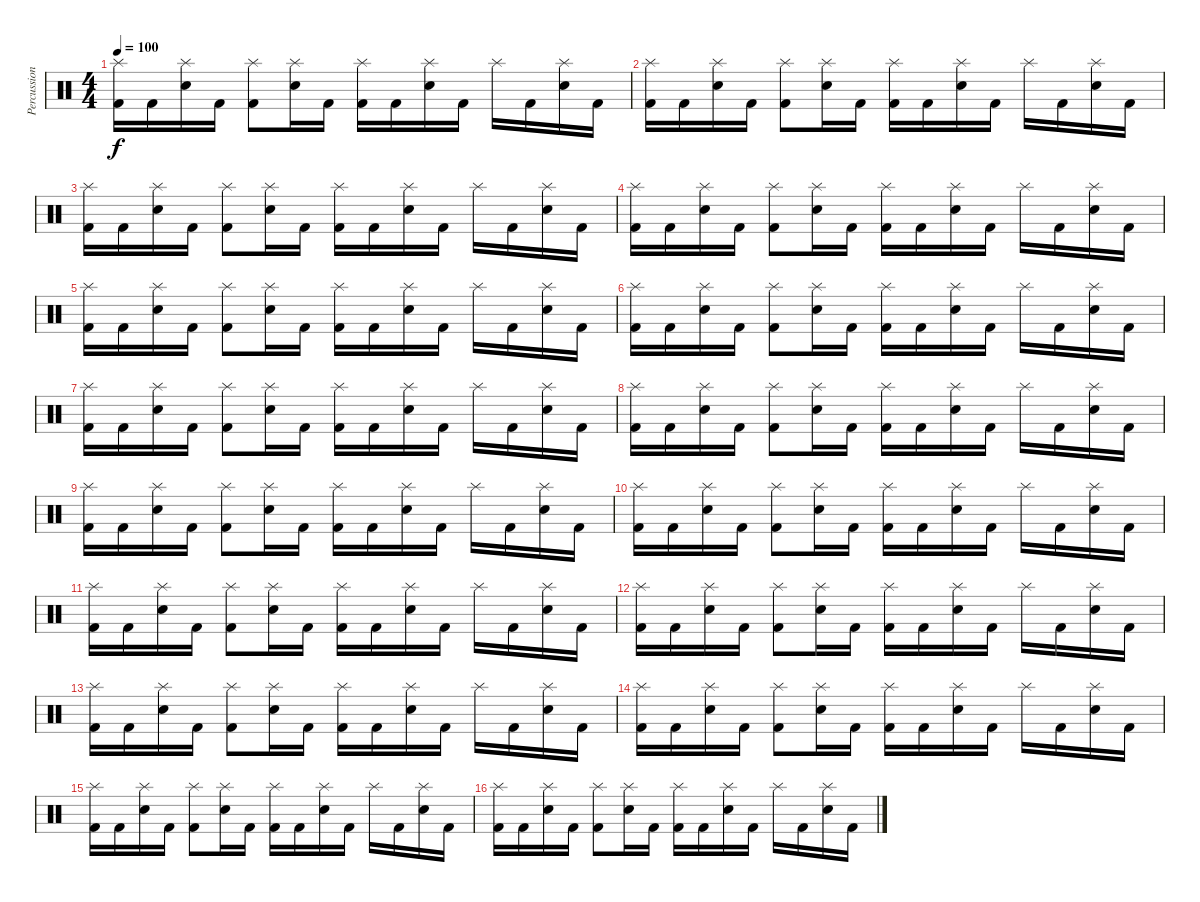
\track ("Percussion" "Percussion") {instrument percussion}
\staff {score}
\articulation defaults
\ts (4 4)
\tempo 100
\clef neutral
\ks c
("Splash (hit)" "Kick (hit) 2").16{dy f} "Kick (hit) 2".16 ("Splash (hit)" "Electric Snare (hit)").16 "Kick (hit) 2".16 ("Splash (hit)" "Kick (hit) 2").8 ("Splash (hit)" "Electric Snare (hit)").16 "Kick (hit) 2".16 ("Splash (hit)" "Kick (hit) 2").16 "Kick (hit) 2".16 ("Splash (hit)" "Electric Snare (hit)").16 "Kick (hit) 2".16 "Splash (hit)".16 "Kick (hit) 2".16 ("Splash (hit)" "Electric Snare (hit)").16 "Kick (hit) 2".16 |
("Splash (hit)" "Kick (hit) 2").16 "Kick (hit) 2".16 ("Splash (hit)" "Electric Snare (hit)").16 "Kick (hit) 2".16 ("Splash (hit)" "Kick (hit) 2").8 ("Splash (hit)" "Electric Snare (hit)").16 "Kick (hit) 2".16 ("Splash (hit)" "Kick (hit) 2").16 "Kick (hit) 2".16 ("Splash (hit)" "Electric Snare (hit)").16 "Kick (hit) 2".16 "Splash (hit)".16 "Kick (hit) 2".16 ("Splash (hit)" "Electric Snare (hit)").16 "Kick (hit) 2".16 |
("Splash (hit)" "Kick (hit) 2").16 "Kick (hit) 2".16 ("Splash (hit)" "Electric Snare (hit)").16 "Kick (hit) 2".16 ("Splash (hit)" "Kick (hit) 2").8 ("Splash (hit)" "Electric Snare (hit)").16 "Kick (hit) 2".16 ("Splash (hit)" "Kick (hit) 2").16 "Kick (hit) 2".16 ("Splash (hit)" "Electric Snare (hit)").16 "Kick (hit) 2".16 "Splash (hit)".16 "Kick (hit) 2".16 ("Splash (hit)" "Electric Snare (hit)").16 "Kick (hit) 2".16 |
("Splash (hit)" "Kick (hit) 2").16 "Kick (hit) 2".16 ("Splash (hit)" "Electric Snare (hit)").16 "Kick (hit) 2".16 ("Splash (hit)" "Kick (hit) 2").8 ("Splash (hit)" "Electric Snare (hit)").16 "Kick (hit) 2".16 ("Splash (hit)" "Kick (hit) 2").16 "Kick (hit) 2".16 ("Splash (hit)" "Electric Snare (hit)").16 "Kick (hit) 2".16 "Splash (hit)".16 "Kick (hit) 2".16 ("Splash (hit)" "Electric Snare (hit)").16 "Kick (hit) 2".16 |
("Splash (hit)" "Kick (hit) 2").16 "Kick (hit) 2".16 ("Splash (hit)" "Electric Snare (hit)").16 "Kick (hit) 2".16 ("Splash (hit)" "Kick (hit) 2").8 ("Splash (hit)" "Electric Snare (hit)").16 "Kick (hit) 2".16 ("Splash (hit)" "Kick (hit) 2").16 "Kick (hit) 2".16 ("Splash (hit)" "Electric Snare (hit)").16 "Kick (hit) 2".16 "Splash (hit)".16 "Kick (hit) 2".16 ("Splash (hit)" "Electric Snare (hit)").16 "Kick (hit) 2".16 |
("Splash (hit)" "Kick (hit) 2").16 "Kick (hit) 2".16 ("Splash (hit)" "Electric Snare (hit)").16 "Kick (hit) 2".16 ("Splash (hit)" "Kick (hit) 2").8 ("Splash (hit)" "Electric Snare (hit)").16 "Kick (hit) 2".16 ("Splash (hit)" "Kick (hit) 2").16 "Kick (hit) 2".16 ("Splash (hit)" "Electric Snare (hit)").16 "Kick (hit) 2".16 "Splash (hit)".16 "Kick (hit) 2".16 ("Splash (hit)" "Electric Snare (hit)").16 "Kick (hit) 2".16 |
("Splash (hit)" "Kick (hit) 2").16 "Kick (hit) 2".16 ("Splash (hit)" "Electric Snare (hit)").16 "Kick (hit) 2".16 ("Splash (hit)" "Kick (hit) 2").8 ("Splash (hit)" "Electric Snare (hit)").16 "Kick (hit) 2".16 ("Splash (hit)" "Kick (hit) 2").16 "Kick (hit) 2".16 ("Splash (hit)" "Electric Snare (hit)").16 "Kick (hit) 2".16 "Splash (hit)".16 "Kick (hit) 2".16 ("Splash (hit)" "Electric Snare (hit)").16 "Kick (hit) 2".16 |
("Splash (hit)" "Kick (hit) 2").16 "Kick (hit) 2".16 ("Splash (hit)" "Electric Snare (hit)").16 "Kick (hit) 2".16 ("Splash (hit)" "Kick (hit) 2").8 ("Splash (hit)" "Electric Snare (hit)").16 "Kick (hit) 2".16 ("Splash (hit)" "Kick (hit) 2").16 "Kick (hit) 2".16 ("Splash (hit)" "Electric Snare (hit)").16 "Kick (hit) 2".16 "Splash (hit)".16 "Kick (hit) 2".16 ("Splash (hit)" "Electric Snare (hit)").16 "Kick (hit) 2".16 |
("Splash (hit)" "Kick (hit) 2").16 "Kick (hit) 2".16 ("Splash (hit)" "Electric Snare (hit)").16 "Kick (hit) 2".16 ("Splash (hit)" "Kick (hit) 2").8 ("Splash (hit)" "Electric Snare (hit)").16 "Kick (hit) 2".16 ("Splash (hit)" "Kick (hit) 2").16 "Kick (hit) 2".16 ("Splash (hit)" "Electric Snare (hit)").16 "Kick (hit) 2".16 "Splash (hit)".16 "Kick (hit) 2".16 ("Splash (hit)" "Electric Snare (hit)").16 "Kick (hit) 2".16 |
("Splash (hit)" "Kick (hit) 2").16 "Kick (hit) 2".16 ("Splash (hit)" "Electric Snare (hit)").16 "Kick (hit) 2".16 ("Splash (hit)" "Kick (hit) 2").8 ("Splash (hit)" "Electric Snare (hit)").16 "Kick (hit) 2".16 ("Splash (hit)" "Kick (hit) 2").16 "Kick (hit) 2".16 ("Splash (hit)" "Electric Snare (hit)").16 "Kick (hit) 2".16 "Splash (hit)".16 "Kick (hit) 2".16 ("Splash (hit)" "Electric Snare (hit)").16 "Kick (hit) 2".16 |
("Splash (hit)" "Kick (hit) 2").16 "Kick (hit) 2".16 ("Splash (hit)" "Electric Snare (hit)").16 "Kick (hit) 2".16 ("Splash (hit)" "Kick (hit) 2").8 ("Splash (hit)" "Electric Snare (hit)").16 "Kick (hit) 2".16 ("Splash (hit)" "Kick (hit) 2").16 "Kick (hit) 2".16 ("Splash (hit)" "Electric Snare (hit)").16 "Kick (hit) 2".16 "Splash (hit)".16 "Kick (hit) 2".16 ("Splash (hit)" "Electric Snare (hit)").16 "Kick (hit) 2".16 |
("Splash (hit)" "Kick (hit) 2").16 "Kick (hit) 2".16 ("Splash (hit)" "Electric Snare (hit)").16 "Kick (hit) 2".16 ("Splash (hit)" "Kick (hit) 2").8 ("Splash (hit)" "Electric Snare (hit)").16 "Kick (hit) 2".16 ("Splash (hit)" "Kick (hit) 2").16 "Kick (hit) 2".16 ("Splash (hit)" "Electric Snare (hit)").16 "Kick (hit) 2".16 "Splash (hit)".16 "Kick (hit) 2".16 ("Splash (hit)" "Electric Snare (hit)").16 "Kick (hit) 2".16 |
("Splash (hit)" "Kick (hit) 2").16 "Kick (hit) 2".16 ("Splash (hit)" "Electric Snare (hit)").16 "Kick (hit) 2".16 ("Splash (hit)" "Kick (hit) 2").8 ("Splash (hit)" "Electric Snare (hit)").16 "Kick (hit) 2".16 ("Splash (hit)" "Kick (hit) 2").16 "Kick (hit) 2".16 ("Splash (hit)" "Electric Snare (hit)").16 "Kick (hit) 2".16 "Splash (hit)".16 "Kick (hit) 2".16 ("Splash (hit)" "Electric Snare (hit)").16 "Kick (hit) 2".16 |
("Splash (hit)" "Kick (hit) 2").16 "Kick (hit) 2".16 ("Splash (hit)" "Electric Snare (hit)").16 "Kick (hit) 2".16 ("Splash (hit)" "Kick (hit) 2").8 ("Splash (hit)" "Electric Snare (hit)").16 "Kick (hit) 2".16 ("Splash (hit)" "Kick (hit) 2").16 "Kick (hit) 2".16 ("Splash (hit)" "Electric Snare (hit)").16 "Kick (hit) 2".16 "Splash (hit)".16 "Kick (hit) 2".16 ("Splash (hit)" "Electric Snare (hit)").16 "Kick (hit) 2".16 |
("Splash (hit)" "Kick (hit) 2").16 "Kick (hit) 2".16 ("Splash (hit)" "Electric Snare (hit)").16 "Kick (hit) 2".16 ("Splash (hit)" "Kick (hit) 2").8 ("Splash (hit)" "Electric Snare (hit)").16 "Kick (hit) 2".16 ("Splash (hit)" "Kick (hit) 2").16 "Kick (hit) 2".16 ("Splash (hit)" "Electric Snare (hit)").16 "Kick (hit) 2".16 "Splash (hit)".16 "Kick (hit) 2".16 ("Splash (hit)" "Electric Snare (hit)").16 "Kick (hit) 2".16 |
("Splash (hit)" "Kick (hit) 2").16 "Kick (hit) 2".16 ("Splash (hit)" "Electric Snare (hit)").16 "Kick (hit) 2".16 ("Splash (hit)" "Kick (hit) 2").8 ("Splash (hit)" "Electric Snare (hit)").16 "Kick (hit) 2".16 ("Splash (hit)" "Kick (hit) 2").16 "Kick (hit) 2".16 ("Splash (hit)" "Electric Snare (hit)").16 "Kick (hit) 2".16 "Splash (hit)".16 "Kick (hit) 2".16 ("Splash (hit)" "Electric Snare (hit)").16 "Kick (hit) 2".16
